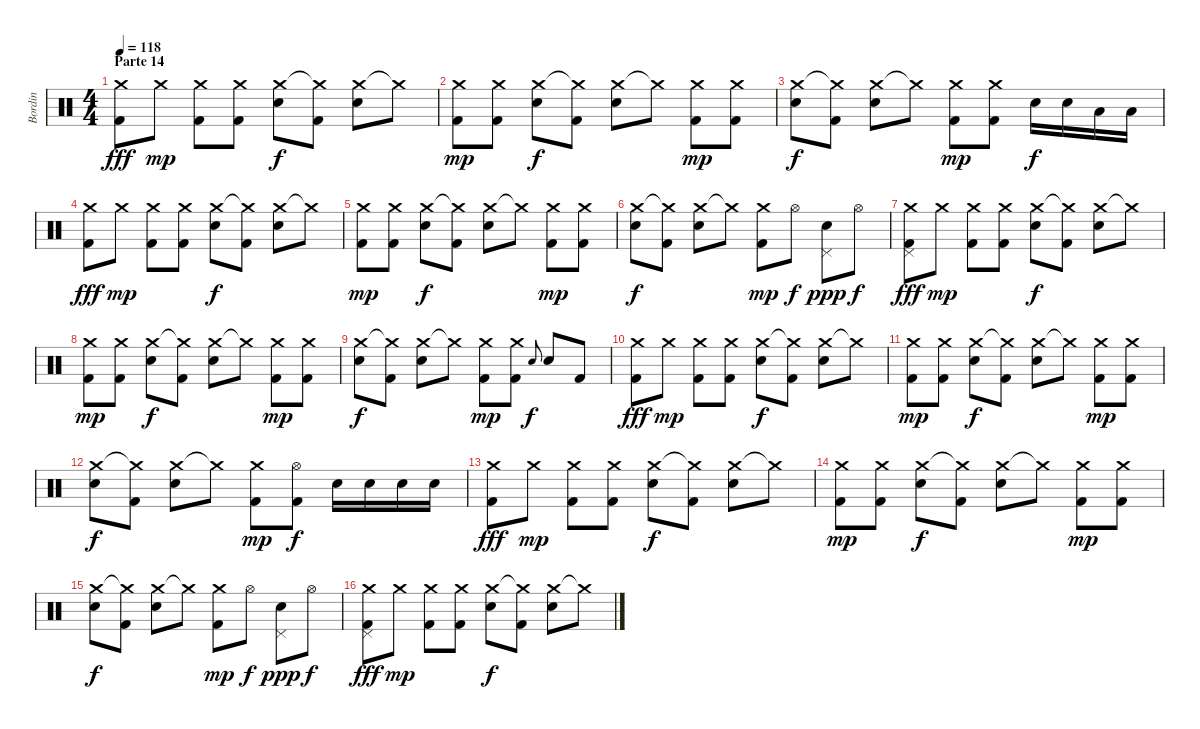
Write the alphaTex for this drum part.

\track ("Bordin" "Bordin") {instrument percussion}
\staff {score}
\articulation defaults
\ts (4 4)
\section ("" "Parte 14")
\tempo 118
\clef neutral
\ks c
("Crash medium (hit)" "Kick (hit) 2").8{dy fff} "Crash medium (hit)".8{dy mp} ("Crash medium (hit)" "Kick (hit) 2").8 ("Crash medium (hit)" "Kick (hit) 2").8 ("Crash medium (hit)" "Electric Snare (hit)").8{dy f} ("Crash medium (hit)"{t} "Kick (hit) 2").8 ("Crash medium (hit)" "Electric Snare (hit)").8 "Crash medium (hit)"{t}.8 |
("Crash medium (hit)" "Kick (hit) 2").8{dy mp} ("Crash medium (hit)" "Kick (hit) 2").8 ("Crash medium (hit)" "Electric Snare (hit)").8{dy f} ("Crash medium (hit)"{t} "Kick (hit) 2").8 ("Crash medium (hit)" "Electric Snare (hit)").8 "Crash medium (hit)"{t}.8 ("Crash medium (hit)" "Kick (hit) 2").8{dy mp} ("Crash medium (hit)" "Kick (hit) 2").8 |
("Crash medium (hit)" "Electric Snare (hit)").8{dy f} ("Crash medium (hit)"{t} "Kick (hit) 2").8 ("Crash medium (hit)" "Electric Snare (hit)").8 "Crash medium (hit)"{t}.8 ("Crash medium (hit)" "Kick (hit) 2").8{dy mp} ("Crash medium (hit)" "Kick (hit) 2").8 "Electric Snare (hit)".16{dy f} "Electric Snare (hit)".16 "Low Tom (hit)".16 "Low Tom (hit)".16 |
("Crash medium (hit)" "Kick (hit) 2").8{dy fff} "Crash medium (hit)".8{dy mp} ("Crash medium (hit)" "Kick (hit) 2").8 ("Crash medium (hit)" "Kick (hit) 2").8 ("Crash medium (hit)" "Electric Snare (hit)").8{dy f} ("Crash medium (hit)"{t} "Kick (hit) 2").8 ("Crash medium (hit)" "Electric Snare (hit)").8 "Crash medium (hit)"{t}.8 |
("Crash medium (hit)" "Kick (hit) 2").8{dy mp} ("Crash medium (hit)" "Kick (hit) 2").8 ("Crash medium (hit)" "Electric Snare (hit)").8{dy f} ("Crash medium (hit)"{t} "Kick (hit) 2").8 ("Crash medium (hit)" "Electric Snare (hit)").8 "Crash medium (hit)"{t}.8 ("Crash medium (hit)" "Kick (hit) 2").8{dy mp} ("Crash medium (hit)" "Kick (hit) 2").8 |
("Crash medium (hit)" "Electric Snare (hit)").8{dy f} ("Crash medium (hit)"{t} "Kick (hit) 2").8 ("Crash medium (hit)" "Electric Snare (hit)").8 "Crash medium (hit)"{t}.8 ("Crash medium (hit)" "Kick (hit) 2").8{dy mp} "Hi-Hat (open)".8{dy f} ("Pedal Hi-Hat (hit)" "Electric Snare (hit)").8{dy ppp} "Hi-Hat (open)".8{dy f} |
("Crash medium (hit)" "Pedal Hi-Hat (hit)" "Kick (hit) 2").8{dy fff} "Crash medium (hit)".8{dy mp} ("Crash medium (hit)" "Kick (hit) 2").8 ("Crash medium (hit)" "Kick (hit) 2").8 ("Crash medium (hit)" "Electric Snare (hit)").8{dy f} ("Crash medium (hit)"{t} "Kick (hit) 2").8 ("Crash medium (hit)" "Electric Snare (hit)").8 "Crash medium (hit)"{t}.8 |
("Crash medium (hit)" "Kick (hit) 2").8{dy mp} ("Crash medium (hit)" "Kick (hit) 2").8 ("Crash medium (hit)" "Electric Snare (hit)").8{dy f} ("Crash medium (hit)"{t} "Kick (hit) 2").8 ("Crash medium (hit)" "Electric Snare (hit)").8 "Crash medium (hit)"{t}.8 ("Crash medium (hit)" "Kick (hit) 2").8{dy mp} ("Crash medium (hit)" "Kick (hit) 2").8 |
("Crash medium (hit)" "Electric Snare (hit)").8{dy f} ("Crash medium (hit)"{t} "Kick (hit) 2").8 ("Crash medium (hit)" "Electric Snare (hit)").8 "Crash medium (hit)"{t}.8 ("Crash medium (hit)" "Kick (hit) 2").8{dy mp} ("Crash medium (hit)" "Kick (hit) 2").8 "Electric Snare (hit)".8{gr onbeat dy f} "Electric Snare (hit)".8 "Kick (hit) 2".8 |
("Crash medium (hit)" "Kick (hit) 2").8{dy fff} "Crash medium (hit)".8{dy mp} ("Crash medium (hit)" "Kick (hit) 2").8 ("Crash medium (hit)" "Kick (hit) 2").8 ("Crash medium (hit)" "Electric Snare (hit)").8{dy f} ("Crash medium (hit)"{t} "Kick (hit) 2").8 ("Crash medium (hit)" "Electric Snare (hit)").8 "Crash medium (hit)"{t}.8 |
("Crash medium (hit)" "Kick (hit) 2").8{dy mp} ("Crash medium (hit)" "Kick (hit) 2").8 ("Crash medium (hit)" "Electric Snare (hit)").8{dy f} ("Crash medium (hit)"{t} "Kick (hit) 2").8 ("Crash medium (hit)" "Electric Snare (hit)").8 "Crash medium (hit)"{t}.8 ("Crash medium (hit)" "Kick (hit) 2").8{dy mp} ("Crash medium (hit)" "Kick (hit) 2").8 |
("Crash medium (hit)" "Electric Snare (hit)").8{dy f} ("Crash medium (hit)"{t} "Kick (hit) 2").8 ("Crash medium (hit)" "Electric Snare (hit)").8 "Crash medium (hit)"{t}.8 ("Crash medium (hit)" "Kick (hit) 2").8{dy mp} ("Hi-Hat (open)" "Kick (hit) 2").8{dy f} "Electric Snare (hit)".16 "Electric Snare (hit)".16 "Electric Snare (hit)".16 "Electric Snare (hit)".16 |
("Crash medium (hit)" "Kick (hit) 2").8{dy fff} "Crash medium (hit)".8{dy mp} ("Crash medium (hit)" "Kick (hit) 2").8 ("Crash medium (hit)" "Kick (hit) 2").8 ("Crash medium (hit)" "Electric Snare (hit)").8{dy f} ("Crash medium (hit)"{t} "Kick (hit) 2").8 ("Crash medium (hit)" "Electric Snare (hit)").8 "Crash medium (hit)"{t}.8 |
("Crash medium (hit)" "Kick (hit) 2").8{dy mp} ("Crash medium (hit)" "Kick (hit) 2").8 ("Crash medium (hit)" "Electric Snare (hit)").8{dy f} ("Crash medium (hit)"{t} "Kick (hit) 2").8 ("Crash medium (hit)" "Electric Snare (hit)").8 "Crash medium (hit)"{t}.8 ("Crash medium (hit)" "Kick (hit) 2").8{dy mp} ("Crash medium (hit)" "Kick (hit) 2").8 |
("Crash medium (hit)" "Electric Snare (hit)").8{dy f} ("Crash medium (hit)"{t} "Kick (hit) 2").8 ("Crash medium (hit)" "Electric Snare (hit)").8 "Crash medium (hit)"{t}.8 ("Crash medium (hit)" "Kick (hit) 2").8{dy mp} "Hi-Hat (open)".8{dy f} ("Pedal Hi-Hat (hit)" "Electric Snare (hit)").8{dy ppp} "Hi-Hat (open)".8{dy f} |
("Crash medium (hit)" "Pedal Hi-Hat (hit)" "Kick (hit) 2").8{dy fff} "Crash medium (hit)".8{dy mp} ("Crash medium (hit)" "Kick (hit) 2").8 ("Crash medium (hit)" "Kick (hit) 2").8 ("Crash medium (hit)" "Electric Snare (hit)").8{dy f} ("Crash medium (hit)"{t} "Kick (hit) 2").8 ("Crash medium (hit)" "Electric Snare (hit)").8 "Crash medium (hit)"{t}.8
